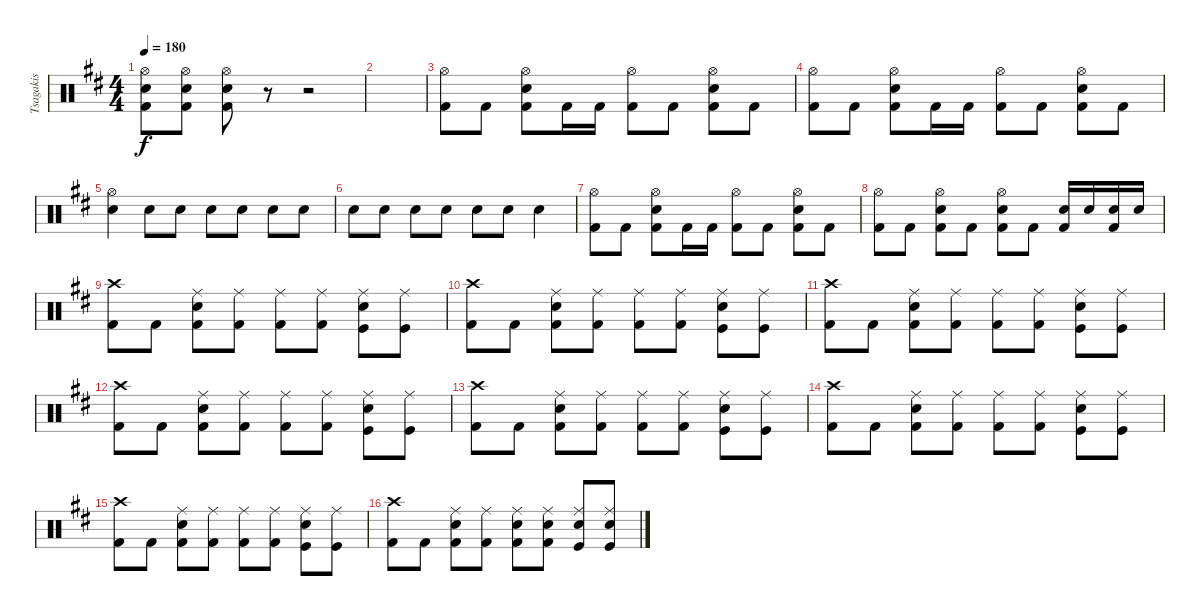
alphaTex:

\track ("Tsagakis" "Tsagakis") {instrument percussion}
\staff {score}
\articulation defaults
\ts (4 4)
\tempo 180
\clef neutral
\ks d
("Hi-Hat (open)" "Electric Snare (hit)" "Kick (hit) 2").8{dy f} ("Hi-Hat (open)" "Electric Snare (hit)" "Kick (hit) 2").8 ("Hi-Hat (open)" "Electric Snare (hit)" "Kick (hit) 2").8 r.8 r.2 |
|
("Hi-Hat (open)" "Kick (hit) 2").8 "Kick (hit) 2".8 ("Hi-Hat (open)" "Electric Snare (hit)" "Kick (hit) 2").8 "Kick (hit) 2".16 "Kick (hit) 2".16 ("Hi-Hat (open)" "Kick (hit) 2").8 "Kick (hit) 2".8 ("Hi-Hat (open)" "Electric Snare (hit)" "Kick (hit) 2").8 "Kick (hit) 2".8 |
("Hi-Hat (open)" "Kick (hit) 2").8 "Kick (hit) 2".8 ("Hi-Hat (open)" "Electric Snare (hit)" "Kick (hit) 2").8 "Kick (hit) 2".16 "Kick (hit) 2".16 ("Hi-Hat (open)" "Kick (hit) 2").8 "Kick (hit) 2".8 ("Hi-Hat (open)" "Electric Snare (hit)" "Kick (hit) 2").8 "Kick (hit) 2".8 |
("Hi-Hat (open)" "Electric Snare (hit)").4 "Electric Snare (hit)".8 "Electric Snare (hit)".8 "Electric Snare (hit)".8 "Electric Snare (hit)".8 "Electric Snare (hit)".8 "Electric Snare (hit)".8 |
"Electric Snare (hit)".8 "Electric Snare (hit)".8 "Electric Snare (hit)".8 "Electric Snare (hit)".8 "Electric Snare (hit)".8 "Electric Snare (hit)".8 "Electric Snare (hit)".4 |
("Hi-Hat (open)" "Kick (hit) 2").8 "Kick (hit) 2".8 ("Hi-Hat (open)" "Electric Snare (hit)" "Kick (hit) 2").8 "Kick (hit) 2".16 "Kick (hit) 2".16 ("Hi-Hat (open)" "Kick (hit) 2").8 "Kick (hit) 2".8 ("Hi-Hat (open)" "Electric Snare (hit)" "Kick (hit) 2").8 "Kick (hit) 2".8 |
("Hi-Hat (open)" "Kick (hit) 2").8 "Kick (hit) 2".8 ("Hi-Hat (open)" "Electric Snare (hit)" "Kick (hit) 2").8 "Kick (hit) 2".8 ("Hi-Hat (open)" "Electric Snare (hit)" "Kick (hit) 2").8 "Kick (hit) 2".8 ("Electric Snare (hit)" "Kick (hit) 2").16 "Electric Snare (hit)".16 ("Electric Snare (hit)" "Kick (hit) 2").16 "Electric Snare (hit)".16 |
("Crash high (hit)" "Kick (hit) 2").8 "Kick (hit) 2".8 ("Ride (middle)" "Electric Snare (hit)" "Kick (hit) 2").8 ("Ride (middle)" "Kick (hit) 2").8 ("Ride (middle)" "Kick (hit) 2").8 ("Ride (middle)" "Kick (hit) 2").8 ("Ride (middle)" "Electric Snare (hit)" "Kick (hit)").8 ("Ride (middle)" "Kick (hit)").8 |
("Crash high (hit)" "Kick (hit) 2").8 "Kick (hit) 2".8 ("Ride (middle)" "Electric Snare (hit)" "Kick (hit) 2").8 ("Ride (middle)" "Kick (hit) 2").8 ("Ride (middle)" "Kick (hit) 2").8 ("Ride (middle)" "Kick (hit) 2").8 ("Ride (middle)" "Electric Snare (hit)" "Kick (hit)").8 ("Ride (middle)" "Kick (hit)").8 |
("Crash high (hit)" "Kick (hit) 2").8 "Kick (hit) 2".8 ("Ride (middle)" "Electric Snare (hit)" "Kick (hit) 2").8 ("Ride (middle)" "Kick (hit) 2").8 ("Ride (middle)" "Kick (hit) 2").8 ("Ride (middle)" "Kick (hit) 2").8 ("Ride (middle)" "Electric Snare (hit)" "Kick (hit)").8 ("Ride (middle)" "Kick (hit)").8 |
("Crash high (hit)" "Kick (hit) 2").8 "Kick (hit) 2".8 ("Ride (middle)" "Electric Snare (hit)" "Kick (hit) 2").8 ("Ride (middle)" "Kick (hit) 2").8 ("Ride (middle)" "Kick (hit) 2").8 ("Ride (middle)" "Kick (hit) 2").8 ("Ride (middle)" "Electric Snare (hit)" "Kick (hit)").8 ("Ride (middle)" "Kick (hit)").8 |
("Crash high (hit)" "Kick (hit) 2").8 "Kick (hit) 2".8 ("Ride (middle)" "Electric Snare (hit)" "Kick (hit) 2").8 ("Ride (middle)" "Kick (hit) 2").8 ("Ride (middle)" "Kick (hit) 2").8 ("Ride (middle)" "Kick (hit) 2").8 ("Ride (middle)" "Electric Snare (hit)" "Kick (hit)").8 ("Ride (middle)" "Kick (hit)").8 |
("Crash high (hit)" "Kick (hit) 2").8 "Kick (hit) 2".8 ("Ride (middle)" "Electric Snare (hit)" "Kick (hit) 2").8 ("Ride (middle)" "Kick (hit) 2").8 ("Ride (middle)" "Kick (hit) 2").8 ("Ride (middle)" "Kick (hit) 2").8 ("Ride (middle)" "Electric Snare (hit)" "Kick (hit)").8 ("Ride (middle)" "Kick (hit)").8 |
("Crash high (hit)" "Kick (hit) 2").8 "Kick (hit) 2".8 ("Ride (middle)" "Electric Snare (hit)" "Kick (hit) 2").8 ("Ride (middle)" "Kick (hit) 2").8 ("Ride (middle)" "Kick (hit) 2").8 ("Ride (middle)" "Kick (hit) 2").8 ("Ride (middle)" "Electric Snare (hit)" "Kick (hit)").8 ("Ride (middle)" "Kick (hit)").8 |
("Crash high (hit)" "Kick (hit) 2").8 "Kick (hit) 2".8 ("Ride (middle)" "Electric Snare (hit)" "Kick (hit) 2").8 ("Ride (middle)" "Kick (hit) 2").8 ("Ride (middle)" "Electric Snare (hit)" "Kick (hit) 2").8 ("Ride (middle)" "Electric Snare (hit)" "Kick (hit) 2").8 ("Ride (middle)" "Electric Snare (hit)" "Kick (hit)").8 ("Ride (middle)" "Electric Snare (hit)" "Kick (hit)").8
